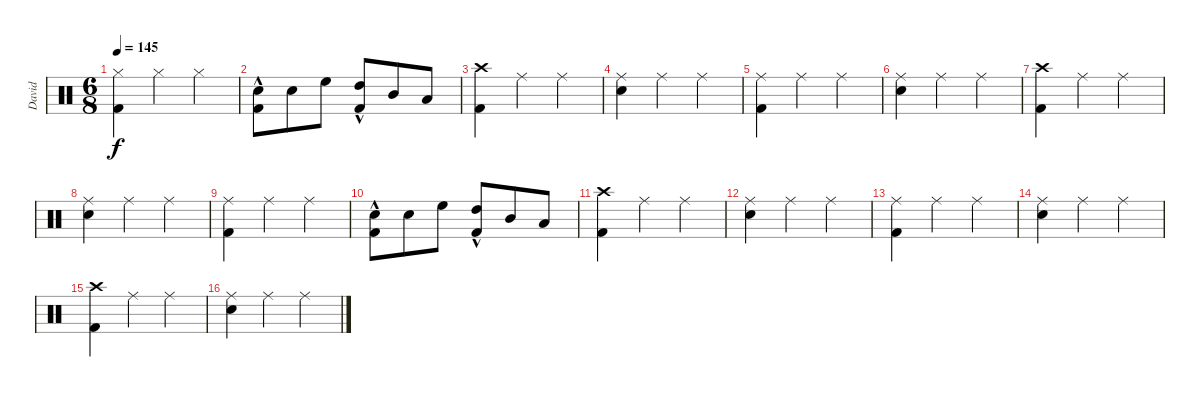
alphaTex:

\track ("David" "David") {instrument percussion}
\staff {score}
\articulation defaults
\ts (6 8)
\tempo 145
\clef neutral
\ks c
("Hi-Hat (closed)" "Kick (hit) 2").4{dy f} "Hi-Hat (closed)".4 "Hi-Hat (closed)".4 |
("Electric Snare (hit)" "Kick (hit) 2"{hac}).8 "Electric Snare (hit)".8 "High Floor Tom (hit)".8 ("High Tom (hit)" "Kick (hit) 2"{hac}).8 "Mid Tom (hit)".8 "Low Tom (hit)".8 |
("Crash high (hit)" "Kick (hit) 2").4 "Ride (middle)".4 "Ride (middle)".4 |
("Ride (middle)" "Electric Snare (hit)").4 "Ride (middle)".4 "Ride (middle)".4 |
("Ride (middle)" "Kick (hit) 2").4 "Ride (middle)".4 "Ride (middle)".4 |
("Ride (middle)" "Electric Snare (hit)").4 "Ride (middle)".4 "Ride (middle)".4 |
("Crash high (hit)" "Kick (hit) 2").4 "Ride (middle)".4 "Ride (middle)".4 |
("Ride (middle)" "Electric Snare (hit)").4 "Ride (middle)".4 "Ride (middle)".4 |
("Ride (middle)" "Kick (hit) 2").4 "Ride (middle)".4 "Ride (middle)".4 |
("Electric Snare (hit)" "Kick (hit) 2"{hac}).8 "Electric Snare (hit)".8 "High Floor Tom (hit)".8 ("High Tom (hit)" "Kick (hit) 2"{hac}).8 "Mid Tom (hit)".8 "Low Tom (hit)".8 |
("Crash high (hit)" "Kick (hit) 2").4 "Ride (middle)".4 "Ride (middle)".4 |
("Ride (middle)" "Electric Snare (hit)").4 "Ride (middle)".4 "Ride (middle)".4 |
("Ride (middle)" "Kick (hit) 2").4 "Ride (middle)".4 "Ride (middle)".4 |
("Ride (middle)" "Electric Snare (hit)").4 "Ride (middle)".4 "Ride (middle)".4 |
("Crash high (hit)" "Kick (hit) 2").4 "Ride (middle)".4 "Ride (middle)".4 |
("Ride (middle)" "Electric Snare (hit)").4 "Ride (middle)".4 "Ride (middle)".4
